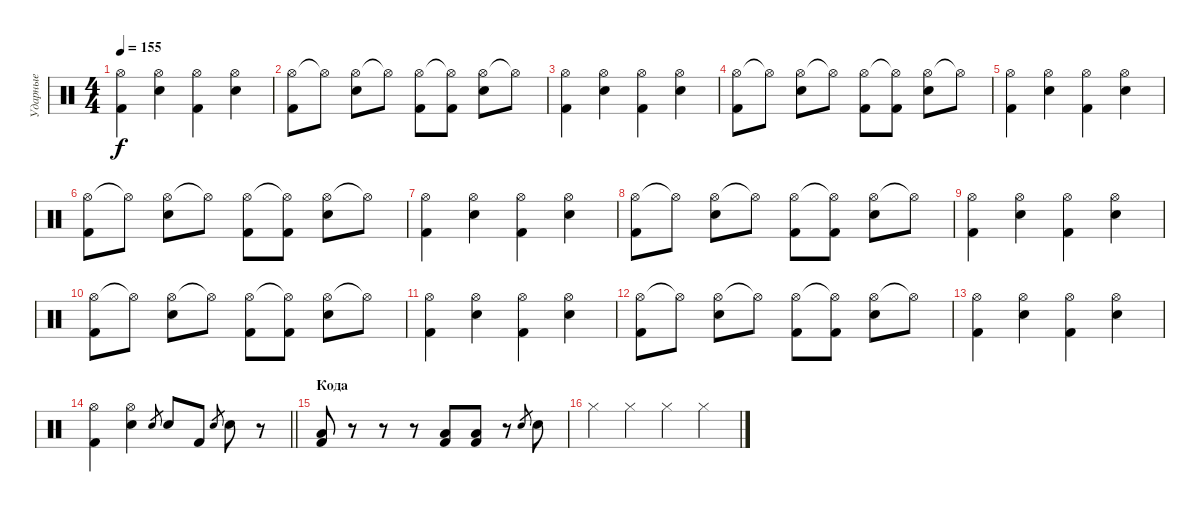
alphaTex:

\track ("Ударные" "Ударные") {solo instrument percussion}
\staff {score}
\articulation defaults
\ts (4 4)
\tempo 155
\clef neutral
\ks c
("Hi-Hat (open)" "Kick (hit) 2").4{dy f} ("Hi-Hat (open)" "Electric Snare (hit)").4 ("Hi-Hat (open)" "Kick (hit) 2").4 ("Hi-Hat (open)" "Electric Snare (hit)").4 |
("Hi-Hat (open)" "Kick (hit) 2").8 "Hi-Hat (open)"{t}.8 ("Hi-Hat (open)" "Electric Snare (hit)").8 "Hi-Hat (open)"{t}.8 ("Hi-Hat (open)" "Kick (hit) 2").8 ("Hi-Hat (open)"{t} "Kick (hit) 2").8 ("Hi-Hat (open)" "Electric Snare (hit)").8 "Hi-Hat (open)"{t}.8 |
("Hi-Hat (open)" "Kick (hit) 2").4 ("Hi-Hat (open)" "Electric Snare (hit)").4 ("Hi-Hat (open)" "Kick (hit) 2").4 ("Hi-Hat (open)" "Electric Snare (hit)").4 |
("Hi-Hat (open)" "Kick (hit) 2").8 "Hi-Hat (open)"{t}.8 ("Hi-Hat (open)" "Electric Snare (hit)").8 "Hi-Hat (open)"{t}.8 ("Hi-Hat (open)" "Kick (hit) 2").8 ("Hi-Hat (open)"{t} "Kick (hit) 2").8 ("Hi-Hat (open)" "Electric Snare (hit)").8 "Hi-Hat (open)"{t}.8 |
("Hi-Hat (open)" "Kick (hit) 2").4 ("Hi-Hat (open)" "Electric Snare (hit)").4 ("Hi-Hat (open)" "Kick (hit) 2").4 ("Hi-Hat (open)" "Electric Snare (hit)").4 |
("Hi-Hat (open)" "Kick (hit) 2").8 "Hi-Hat (open)"{t}.8 ("Hi-Hat (open)" "Electric Snare (hit)").8 "Hi-Hat (open)"{t}.8 ("Hi-Hat (open)" "Kick (hit) 2").8 ("Hi-Hat (open)"{t} "Kick (hit) 2").8 ("Hi-Hat (open)" "Electric Snare (hit)").8 "Hi-Hat (open)"{t}.8 |
("Hi-Hat (open)" "Kick (hit) 2").4 ("Hi-Hat (open)" "Electric Snare (hit)").4 ("Hi-Hat (open)" "Kick (hit) 2").4 ("Hi-Hat (open)" "Electric Snare (hit)").4 |
("Hi-Hat (open)" "Kick (hit) 2").8 "Hi-Hat (open)"{t}.8 ("Hi-Hat (open)" "Electric Snare (hit)").8 "Hi-Hat (open)"{t}.8 ("Hi-Hat (open)" "Kick (hit) 2").8 ("Hi-Hat (open)"{t} "Kick (hit) 2").8 ("Hi-Hat (open)" "Electric Snare (hit)").8 "Hi-Hat (open)"{t}.8 |
("Hi-Hat (open)" "Kick (hit) 2").4 ("Hi-Hat (open)" "Electric Snare (hit)").4 ("Hi-Hat (open)" "Kick (hit) 2").4 ("Hi-Hat (open)" "Electric Snare (hit)").4 |
("Hi-Hat (open)" "Kick (hit) 2").8 "Hi-Hat (open)"{t}.8 ("Hi-Hat (open)" "Electric Snare (hit)").8 "Hi-Hat (open)"{t}.8 ("Hi-Hat (open)" "Kick (hit) 2").8 ("Hi-Hat (open)"{t} "Kick (hit) 2").8 ("Hi-Hat (open)" "Electric Snare (hit)").8 "Hi-Hat (open)"{t}.8 |
("Hi-Hat (open)" "Kick (hit) 2").4 ("Hi-Hat (open)" "Electric Snare (hit)").4 ("Hi-Hat (open)" "Kick (hit) 2").4 ("Hi-Hat (open)" "Electric Snare (hit)").4 |
("Hi-Hat (open)" "Kick (hit) 2").8 "Hi-Hat (open)"{t}.8 ("Hi-Hat (open)" "Electric Snare (hit)").8 "Hi-Hat (open)"{t}.8 ("Hi-Hat (open)" "Kick (hit) 2").8 ("Hi-Hat (open)"{t} "Kick (hit) 2").8 ("Hi-Hat (open)" "Electric Snare (hit)").8 "Hi-Hat (open)"{t}.8 |
("Hi-Hat (open)" "Kick (hit) 2").4 ("Hi-Hat (open)" "Electric Snare (hit)").4 ("Hi-Hat (open)" "Kick (hit) 2").4 ("Hi-Hat (open)" "Electric Snare (hit)").4 |
\barLineRight lightlight
("Hi-Hat (open)" "Kick (hit) 2").4 ("Hi-Hat (open)" "Electric Snare (hit)").4 "Electric Snare (hit)".8{gr} "Electric Snare (hit)".8 "Kick (hit) 2".8 "Electric Snare (hit)".8{gr} "Electric Snare (hit)".8 r.8 |
\section ("" "Кода")
("Low Tom (hit)" "Kick (hit) 2").8 r.8 r.8 r.8 ("Kick (hit) 2" "Low Tom (hit)").8 ("Kick (hit) 2" "Low Tom (hit)").8 r.8 "Electric Snare (hit)".8{gr} "Electric Snare (hit)".8 |
"Hi-Hat (closed)".4 "Hi-Hat (closed)".4 "Hi-Hat (closed)".4 "Hi-Hat (closed)".4
